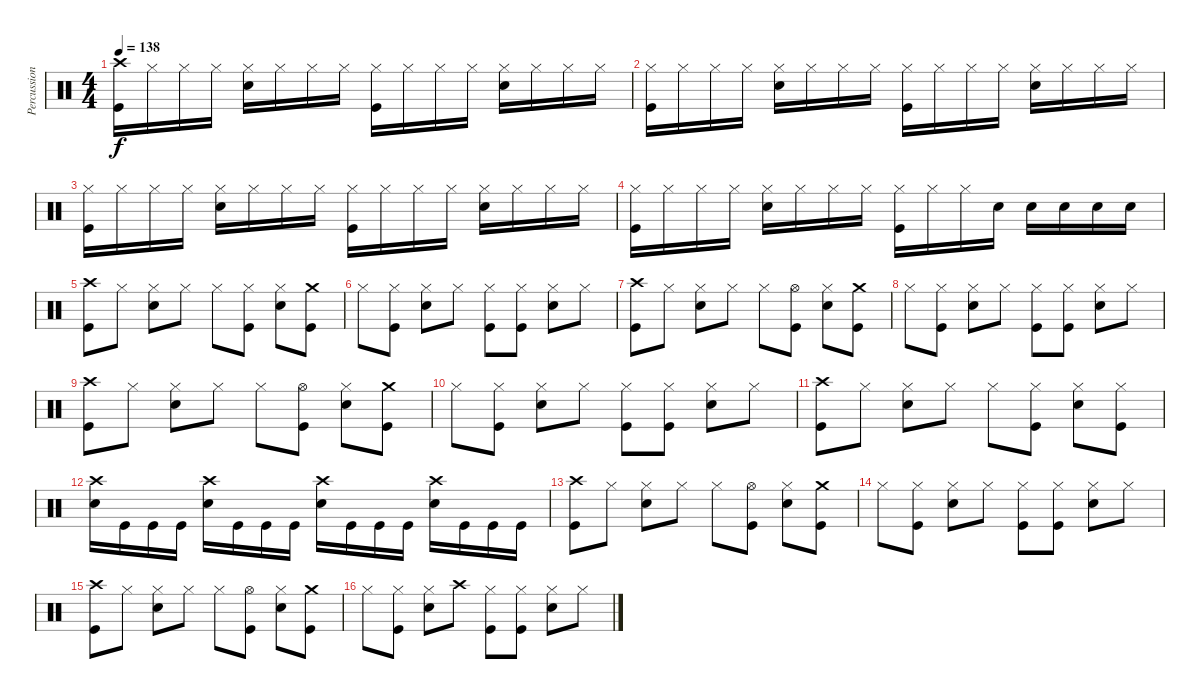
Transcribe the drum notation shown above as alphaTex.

\track ("Percussion" "Percussion") {instrument percussion}
\staff {score}
\articulation defaults
\ts (4 4)
\tempo 138
\clef neutral
\ks c
("Kick (hit)" "Crash high (hit)").16{dy f} "Hi-Hat (closed)".16 "Hi-Hat (closed)".16 "Hi-Hat (closed)".16 ("Snare (hit) 2" "Hi-Hat (closed)").16 "Hi-Hat (closed)".16 "Hi-Hat (closed)".16 "Hi-Hat (closed)".16 ("Kick (hit)" "Hi-Hat (closed)").16 "Hi-Hat (closed)".16 "Hi-Hat (closed)".16 "Hi-Hat (closed)".16 ("Snare (hit) 2" "Hi-Hat (closed)").16 "Hi-Hat (closed)".16 "Hi-Hat (closed)".16 "Hi-Hat (closed)".16 |
("Kick (hit)" "Hi-Hat (closed)").16 "Hi-Hat (closed)".16 "Hi-Hat (closed)".16 "Hi-Hat (closed)".16 ("Snare (hit) 2" "Hi-Hat (closed)").16 "Hi-Hat (closed)".16 "Hi-Hat (closed)".16 "Hi-Hat (closed)".16 ("Kick (hit)" "Hi-Hat (closed)").16 "Hi-Hat (closed)".16 "Hi-Hat (closed)".16 "Hi-Hat (closed)".16 ("Snare (hit) 2" "Hi-Hat (closed)").16 "Hi-Hat (closed)".16 "Hi-Hat (closed)".16 "Hi-Hat (closed)".16 |
("Kick (hit)" "Hi-Hat (closed)").16 "Hi-Hat (closed)".16 "Hi-Hat (closed)".16 "Hi-Hat (closed)".16 ("Snare (hit) 2" "Hi-Hat (closed)").16 "Hi-Hat (closed)".16 "Hi-Hat (closed)".16 "Hi-Hat (closed)".16 ("Kick (hit)" "Hi-Hat (closed)").16 "Hi-Hat (closed)".16 "Hi-Hat (closed)".16 "Hi-Hat (closed)".16 ("Snare (hit) 2" "Hi-Hat (closed)").16 "Hi-Hat (closed)".16 "Hi-Hat (closed)".16 "Hi-Hat (closed)".16 |
("Kick (hit)" "Hi-Hat (closed)").16 "Hi-Hat (closed)".16 "Hi-Hat (closed)".16 "Hi-Hat (closed)".16 ("Snare (hit) 2" "Hi-Hat (closed)").16 "Hi-Hat (closed)".16 "Hi-Hat (closed)".16 "Hi-Hat (closed)".16 ("Kick (hit)" "Hi-Hat (closed)").16 "Hi-Hat (closed)".16 "Hi-Hat (closed)".16 "Snare (hit) 2".16 "Snare (hit) 2".16 "Snare (hit) 2".16 "Snare (hit) 2".16 "Snare (hit) 2".16 |
("Kick (hit)" "Crash high (hit)").8 "Hi-Hat (closed)".8 ("Snare (hit) 2" "Hi-Hat (closed)").8 "Hi-Hat (closed)".8 "Hi-Hat (closed)".8 ("Kick (hit)" "Hi-Hat (closed)").8 ("Snare (hit) 2" "Hi-Hat (closed)").8 ("Kick (hit)" "Crash medium (hit)").8 |
"Hi-Hat (closed)".8 ("Hi-Hat (closed)" "Kick (hit)").8 ("Hi-Hat (closed)" "Snare (hit) 2").8 "Hi-Hat (closed)".8 ("Hi-Hat (closed)" "Kick (hit)").8 ("Hi-Hat (closed)" "Kick (hit)").8 ("Snare (hit) 2" "Hi-Hat (closed)").8 "Hi-Hat (closed)".8 |
("Kick (hit)" "Crash high (hit)").8 "Hi-Hat (closed)".8 ("Snare (hit) 2" "Hi-Hat (closed)").8 "Hi-Hat (closed)".8 "Hi-Hat (closed)".8 ("Kick (hit)" "Hi-Hat (open)").8 ("Snare (hit) 2" "Hi-Hat (closed)").8 ("Kick (hit)" "Crash medium (hit)").8 |
"Hi-Hat (closed)".8 ("Hi-Hat (closed)" "Kick (hit)").8 ("Hi-Hat (closed)" "Snare (hit) 2").8 "Hi-Hat (closed)".8 ("Hi-Hat (closed)" "Kick (hit)").8 ("Hi-Hat (closed)" "Kick (hit)").8 ("Snare (hit) 2" "Hi-Hat (closed)").8 "Hi-Hat (closed)".8 |
("Kick (hit)" "Crash high (hit)").8 "Hi-Hat (closed)".8 ("Snare (hit) 2" "Hi-Hat (closed)").8 "Hi-Hat (closed)".8 "Hi-Hat (closed)".8 ("Kick (hit)" "Hi-Hat (open)").8 ("Snare (hit) 2" "Hi-Hat (closed)").8 ("Kick (hit)" "Crash medium (hit)").8 |
"Hi-Hat (closed)".8 ("Hi-Hat (closed)" "Kick (hit)").8 ("Hi-Hat (closed)" "Snare (hit) 2").8 "Hi-Hat (closed)".8 ("Hi-Hat (closed)" "Kick (hit)").8 ("Hi-Hat (closed)" "Kick (hit)").8 ("Snare (hit) 2" "Hi-Hat (closed)").8 "Hi-Hat (closed)".8 |
("Kick (hit)" "Crash high (hit)").8 "Hi-Hat (closed)".8 ("Snare (hit) 2" "Hi-Hat (closed)").8 "Hi-Hat (closed)".8 "Hi-Hat (closed)".8 ("Kick (hit)" "Hi-Hat (closed)").8 ("Snare (hit) 2" "Hi-Hat (closed)").8 ("Kick (hit)" "Hi-Hat (closed)").8 |
("Snare (hit) 2" "Crash high (hit)").16 "Kick (hit)".16 "Kick (hit)".16 "Kick (hit)".16 ("Snare (hit) 2" "Crash high (hit)").16 "Kick (hit)".16 "Kick (hit)".16 "Kick (hit)".16 ("Snare (hit) 2" "Crash high (hit)").16 "Kick (hit)".16 "Kick (hit)".16 "Kick (hit)".16 ("Snare (hit) 2" "Crash high (hit)").16 "Kick (hit)".16 "Kick (hit)".16 "Kick (hit)".16 |
("Kick (hit)" "Crash high (hit)").8 "Hi-Hat (closed)".8 ("Snare (hit) 2" "Hi-Hat (closed)").8 "Hi-Hat (closed)".8 "Hi-Hat (closed)".8 ("Kick (hit)" "Hi-Hat (open)").8 ("Snare (hit) 2" "Hi-Hat (closed)").8 ("Kick (hit)" "Crash medium (hit)").8 |
"Hi-Hat (closed)".8 ("Hi-Hat (closed)" "Kick (hit)").8 ("Hi-Hat (closed)" "Snare (hit) 2").8 "Hi-Hat (closed)".8 ("Hi-Hat (closed)" "Kick (hit)").8 ("Hi-Hat (closed)" "Kick (hit)").8 ("Snare (hit) 2" "Hi-Hat (closed)").8 "Hi-Hat (closed)".8 |
("Kick (hit)" "Crash high (hit)").8 "Hi-Hat (closed)".8 ("Snare (hit) 2" "Hi-Hat (closed)").8 "Hi-Hat (closed)".8 "Hi-Hat (closed)".8 ("Kick (hit)" "Hi-Hat (open)").8 ("Snare (hit) 2" "Hi-Hat (closed)").8 ("Kick (hit)" "Crash medium (hit)").8 |
"Hi-Hat (closed)".8 ("Hi-Hat (closed)" "Kick (hit)").8 ("Hi-Hat (closed)" "Snare (hit) 2").8 "Crash high (hit)".8 ("Hi-Hat (closed)" "Kick (hit)").8 ("Hi-Hat (closed)" "Kick (hit)").8 ("Snare (hit) 2" "Hi-Hat (closed)").8 "Hi-Hat (closed)".8
